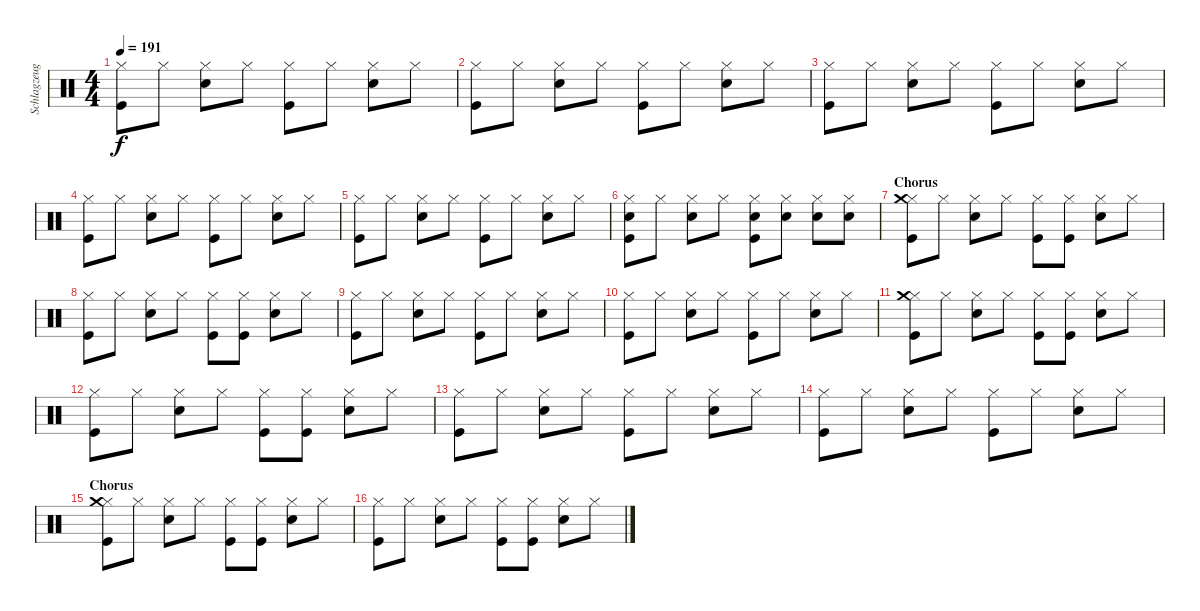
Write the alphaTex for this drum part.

\track ("Schlagzeug - Bela B." "Schlagzeug") {instrument percussion}
\staff {score}
\articulation defaults
\ts (4 4)
\tempo 191
\clef neutral
\ks c
("Kick (hit)" "Hi-Hat (closed)").8{dy f} "Hi-Hat (closed)".8 ("Hi-Hat (closed)" "Electric Snare (hit)").8 "Hi-Hat (closed)".8 ("Hi-Hat (closed)" "Kick (hit)").8 "Hi-Hat (closed)".8 ("Hi-Hat (closed)" "Electric Snare (hit)").8 "Hi-Hat (closed)".8 |
("Kick (hit)" "Hi-Hat (closed)").8 "Hi-Hat (closed)".8 ("Hi-Hat (closed)" "Electric Snare (hit)").8 "Hi-Hat (closed)".8 ("Hi-Hat (closed)" "Kick (hit)").8 "Hi-Hat (closed)".8 ("Hi-Hat (closed)" "Electric Snare (hit)").8 "Hi-Hat (closed)".8 |
("Kick (hit)" "Hi-Hat (closed)").8 "Hi-Hat (closed)".8 ("Hi-Hat (closed)" "Electric Snare (hit)").8 "Hi-Hat (closed)".8 ("Hi-Hat (closed)" "Kick (hit)").8 "Hi-Hat (closed)".8 ("Hi-Hat (closed)" "Electric Snare (hit)").8 "Hi-Hat (closed)".8 |
("Kick (hit)" "Hi-Hat (closed)").8 "Hi-Hat (closed)".8 ("Hi-Hat (closed)" "Electric Snare (hit)").8 "Hi-Hat (closed)".8 ("Hi-Hat (closed)" "Kick (hit)").8 "Hi-Hat (closed)".8 ("Hi-Hat (closed)" "Electric Snare (hit)").8 "Hi-Hat (closed)".8 |
("Kick (hit)" "Hi-Hat (closed)").8 "Hi-Hat (closed)".8 ("Hi-Hat (closed)" "Electric Snare (hit)").8 "Hi-Hat (closed)".8 ("Hi-Hat (closed)" "Kick (hit)").8 "Hi-Hat (closed)".8 ("Hi-Hat (closed)" "Electric Snare (hit)").8 "Hi-Hat (closed)".8 |
("Kick (hit)" "Hi-Hat (closed)" "Electric Snare (hit)").8 "Hi-Hat (closed)".8 ("Hi-Hat (closed)" "Electric Snare (hit)").8 "Hi-Hat (closed)".8 ("Hi-Hat (closed)" "Kick (hit)" "Electric Snare (hit)").8 ("Hi-Hat (closed)" "Electric Snare (hit)").8 ("Hi-Hat (closed)" "Electric Snare (hit)").8 ("Hi-Hat (closed)" "Electric Snare (hit)").8 |
\section ("" "Chorus")
("Kick (hit)" "Hi-Hat (closed)" "Crash medium (hit)").8 "Hi-Hat (closed)".8 ("Hi-Hat (closed)" "Electric Snare (hit)").8 "Hi-Hat (closed)".8 ("Hi-Hat (closed)" "Kick (hit)").8 ("Hi-Hat (closed)" "Kick (hit)").8 ("Hi-Hat (closed)" "Electric Snare (hit)").8 "Hi-Hat (closed)".8 |
("Kick (hit)" "Hi-Hat (closed)").8 "Hi-Hat (closed)".8 ("Hi-Hat (closed)" "Electric Snare (hit)").8 "Hi-Hat (closed)".8 ("Hi-Hat (closed)" "Kick (hit)").8 ("Hi-Hat (closed)" "Kick (hit)").8 ("Hi-Hat (closed)" "Electric Snare (hit)").8 "Hi-Hat (closed)".8 |
("Kick (hit)" "Hi-Hat (closed)").8 "Hi-Hat (closed)".8 ("Hi-Hat (closed)" "Electric Snare (hit)").8 "Hi-Hat (closed)".8 ("Hi-Hat (closed)" "Kick (hit)").8 "Hi-Hat (closed)".8 ("Hi-Hat (closed)" "Electric Snare (hit)").8 "Hi-Hat (closed)".8 |
("Kick (hit)" "Hi-Hat (closed)").8 "Hi-Hat (closed)".8 ("Hi-Hat (closed)" "Electric Snare (hit)").8 "Hi-Hat (closed)".8 ("Hi-Hat (closed)" "Kick (hit)").8 "Hi-Hat (closed)".8 ("Hi-Hat (closed)" "Electric Snare (hit)").8 "Hi-Hat (closed)".8 |
("Kick (hit)" "Hi-Hat (closed)" "Crash medium (hit)").8 "Hi-Hat (closed)".8 ("Hi-Hat (closed)" "Electric Snare (hit)").8 "Hi-Hat (closed)".8 ("Hi-Hat (closed)" "Kick (hit)").8 ("Hi-Hat (closed)" "Kick (hit)").8 ("Hi-Hat (closed)" "Electric Snare (hit)").8 "Hi-Hat (closed)".8 |
("Kick (hit)" "Hi-Hat (closed)").8 "Hi-Hat (closed)".8 ("Hi-Hat (closed)" "Electric Snare (hit)").8 "Hi-Hat (closed)".8 ("Hi-Hat (closed)" "Kick (hit)").8 ("Hi-Hat (closed)" "Kick (hit)").8 ("Hi-Hat (closed)" "Electric Snare (hit)").8 "Hi-Hat (closed)".8 |
("Kick (hit)" "Hi-Hat (closed)").8 "Hi-Hat (closed)".8 ("Hi-Hat (closed)" "Electric Snare (hit)").8 "Hi-Hat (closed)".8 ("Hi-Hat (closed)" "Kick (hit)").8 "Hi-Hat (closed)".8 ("Hi-Hat (closed)" "Electric Snare (hit)").8 "Hi-Hat (closed)".8 |
("Kick (hit)" "Hi-Hat (closed)").8 "Hi-Hat (closed)".8 ("Hi-Hat (closed)" "Electric Snare (hit)").8 "Hi-Hat (closed)".8 ("Hi-Hat (closed)" "Kick (hit)").8 "Hi-Hat (closed)".8 ("Hi-Hat (closed)" "Electric Snare (hit)").8 "Hi-Hat (closed)".8 |
\section ("" "Chorus")
("Kick (hit)" "Hi-Hat (closed)" "Crash medium (hit)").8 "Hi-Hat (closed)".8 ("Hi-Hat (closed)" "Electric Snare (hit)").8 "Hi-Hat (closed)".8 ("Hi-Hat (closed)" "Kick (hit)").8 ("Hi-Hat (closed)" "Kick (hit)").8 ("Hi-Hat (closed)" "Electric Snare (hit)").8 "Hi-Hat (closed)".8 |
("Kick (hit)" "Hi-Hat (closed)").8 "Hi-Hat (closed)".8 ("Hi-Hat (closed)" "Electric Snare (hit)").8 "Hi-Hat (closed)".8 ("Hi-Hat (closed)" "Kick (hit)").8 ("Hi-Hat (closed)" "Kick (hit)").8 ("Hi-Hat (closed)" "Electric Snare (hit)").8 "Hi-Hat (closed)".8
